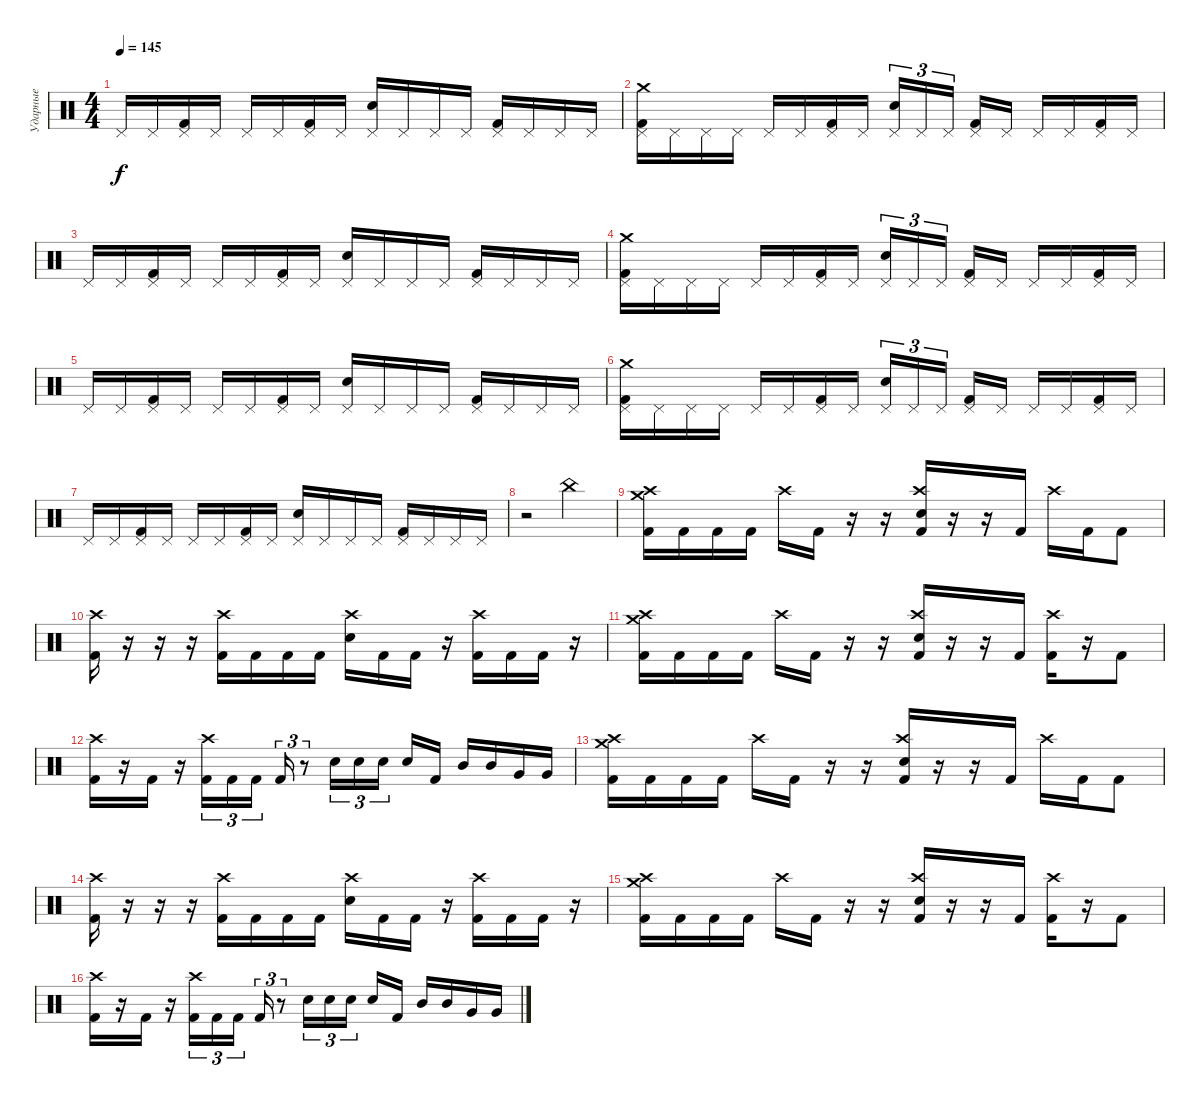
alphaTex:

\track ("Ударные" "Ударные") {instrument percussion}
\staff {score}
\articulation defaults
\ts (4 4)
\tempo 145
\clef neutral
\ks c "Pedal Hi-Hat (hit)".16{dy f} "Pedal Hi-Hat (hit)".16
("Pedal Hi-Hat (hit)" "Kick (hit) 2").16 "Pedal Hi-Hat (hit)".16 "Pedal Hi-Hat (hit)".16 "Pedal Hi-Hat (hit)".16 ("Pedal Hi-Hat (hit)" "Kick (hit) 2").16 "Pedal Hi-Hat (hit)".16 ("Hand Clap (hit)" "Pedal Hi-Hat (hit)").16 "Pedal Hi-Hat (hit)".16 "Pedal Hi-Hat (hit)".16 "Pedal Hi-Hat (hit)".16 ("Pedal Hi-Hat (hit)" "Kick (hit) 2").16 "Pedal Hi-Hat (hit)".16 "Pedal Hi-Hat (hit)".16 "Pedal Hi-Hat (hit)".16 |
("Crash medium (hit)" "Pedal Hi-Hat (hit)" "Kick (hit) 2").16 "Pedal Hi-Hat (hit)".16 "Pedal Hi-Hat (hit)".16 "Pedal Hi-Hat (hit)".16 "Pedal Hi-Hat (hit)".16 "Pedal Hi-Hat (hit)".16 ("Pedal Hi-Hat (hit)" "Kick (hit) 2").16 "Pedal Hi-Hat (hit)".16 ("Hand Clap (hit)" "Pedal Hi-Hat (hit)").16{tu (3 2)} "Pedal Hi-Hat (hit)".16{tu (3 2)} "Pedal Hi-Hat (hit)".16{tu (3 2) beam splitsecondary} ("Pedal Hi-Hat (hit)" "Kick (hit) 2").16 "Pedal Hi-Hat (hit)".16 "Pedal Hi-Hat (hit)".16 "Pedal Hi-Hat (hit)".16 ("Pedal Hi-Hat (hit)" "Kick (hit) 2").16 "Pedal Hi-Hat (hit)".16 |
"Pedal Hi-Hat (hit)".16 "Pedal Hi-Hat (hit)".16 ("Pedal Hi-Hat (hit)" "Kick (hit) 2").16 "Pedal Hi-Hat (hit)".16 "Pedal Hi-Hat (hit)".16 "Pedal Hi-Hat (hit)".16 ("Pedal Hi-Hat (hit)" "Kick (hit) 2").16 "Pedal Hi-Hat (hit)".16 ("Hand Clap (hit)" "Pedal Hi-Hat (hit)").16 "Pedal Hi-Hat (hit)".16 "Pedal Hi-Hat (hit)".16 "Pedal Hi-Hat (hit)".16 ("Pedal Hi-Hat (hit)" "Kick (hit) 2").16 "Pedal Hi-Hat (hit)".16 "Pedal Hi-Hat (hit)".16 "Pedal Hi-Hat (hit)".16 |
("Crash medium (hit)" "Pedal Hi-Hat (hit)" "Kick (hit) 2").16 "Pedal Hi-Hat (hit)".16 "Pedal Hi-Hat (hit)".16 "Pedal Hi-Hat (hit)".16 "Pedal Hi-Hat (hit)".16 "Pedal Hi-Hat (hit)".16 ("Pedal Hi-Hat (hit)" "Kick (hit) 2").16 "Pedal Hi-Hat (hit)".16 ("Hand Clap (hit)" "Pedal Hi-Hat (hit)").16{tu (3 2)} "Pedal Hi-Hat (hit)".16{tu (3 2)} "Pedal Hi-Hat (hit)".16{tu (3 2) beam splitsecondary} ("Pedal Hi-Hat (hit)" "Kick (hit) 2").16 "Pedal Hi-Hat (hit)".16 "Pedal Hi-Hat (hit)".16 "Pedal Hi-Hat (hit)".16 ("Pedal Hi-Hat (hit)" "Kick (hit) 2").16 "Pedal Hi-Hat (hit)".16 |
"Pedal Hi-Hat (hit)".16 "Pedal Hi-Hat (hit)".16 ("Pedal Hi-Hat (hit)" "Kick (hit) 2").16 "Pedal Hi-Hat (hit)".16 "Pedal Hi-Hat (hit)".16 "Pedal Hi-Hat (hit)".16 ("Pedal Hi-Hat (hit)" "Kick (hit) 2").16 "Pedal Hi-Hat (hit)".16 ("Hand Clap (hit)" "Pedal Hi-Hat (hit)").16 "Pedal Hi-Hat (hit)".16 "Pedal Hi-Hat (hit)".16 "Pedal Hi-Hat (hit)".16 ("Pedal Hi-Hat (hit)" "Kick (hit) 2").16 "Pedal Hi-Hat (hit)".16 "Pedal Hi-Hat (hit)".16 "Pedal Hi-Hat (hit)".16 |
("Crash medium (hit)" "Pedal Hi-Hat (hit)" "Kick (hit) 2").16 "Pedal Hi-Hat (hit)".16 "Pedal Hi-Hat (hit)".16 "Pedal Hi-Hat (hit)".16 "Pedal Hi-Hat (hit)".16 "Pedal Hi-Hat (hit)".16 ("Pedal Hi-Hat (hit)" "Kick (hit) 2").16 "Pedal Hi-Hat (hit)".16 ("Hand Clap (hit)" "Pedal Hi-Hat (hit)").16{tu (3 2)} "Pedal Hi-Hat (hit)".16{tu (3 2)} "Pedal Hi-Hat (hit)".16{tu (3 2) beam splitsecondary} ("Pedal Hi-Hat (hit)" "Kick (hit) 2").16 "Pedal Hi-Hat (hit)".16 "Pedal Hi-Hat (hit)".16 "Pedal Hi-Hat (hit)".16 ("Pedal Hi-Hat (hit)" "Kick (hit) 2").16 "Pedal Hi-Hat (hit)".16 |
"Pedal Hi-Hat (hit)".16 "Pedal Hi-Hat (hit)".16 ("Pedal Hi-Hat (hit)" "Kick (hit) 2").16 "Pedal Hi-Hat (hit)".16 "Pedal Hi-Hat (hit)".16 "Pedal Hi-Hat (hit)".16 ("Pedal Hi-Hat (hit)" "Kick (hit) 2").16 "Pedal Hi-Hat (hit)".16 ("Hand Clap (hit)" "Pedal Hi-Hat (hit)").16 "Pedal Hi-Hat (hit)".16 "Pedal Hi-Hat (hit)".16 "Pedal Hi-Hat (hit)".16 ("Pedal Hi-Hat (hit)" "Kick (hit) 2").16 "Pedal Hi-Hat (hit)".16 "Pedal Hi-Hat (hit)".16 "Pedal Hi-Hat (hit)".16 |
r.2 "China (hit)".2 |
("Crash high (hit)" "Crash medium (hit)" "Kick (hit) 2").16 "Kick (hit) 2".16 "Kick (hit) 2".16 "Kick (hit) 2".16 "Crash high (hit)".16 "Kick (hit) 2".16 r.16 r.16 ("Crash high (hit)" "Snare (hit) 2" "Kick (hit) 2").16 r.16 r.16 "Kick (hit) 2".16 "Crash high (hit)".16 "Kick (hit) 2".16 "Kick (hit) 2".8 |
("Crash high (hit)" "Kick (hit) 2").16 r.16 r.16 r.16 ("Crash high (hit)" "Kick (hit) 2").16 "Kick (hit) 2".16 "Kick (hit) 2".16 "Kick (hit) 2".16 ("Crash high (hit)" "Snare (hit) 2").16 "Kick (hit) 2".16 "Kick (hit) 2".16 r.16 ("Crash high (hit)" "Kick (hit) 2").16 "Kick (hit) 2".16 "Kick (hit) 2".16 r.16 |
("Crash high (hit)" "Crash medium (hit)" "Kick (hit) 2").16 "Kick (hit) 2".16 "Kick (hit) 2".16 "Kick (hit) 2".16 "Crash high (hit)".16 "Kick (hit) 2".16 r.16 r.16 ("Crash high (hit)" "Snare (hit) 2" "Kick (hit) 2").16 r.16 r.16 "Kick (hit) 2".16 ("Crash high (hit)" "Kick (hit) 2").16 r.16 "Kick (hit) 2".8 |
("Crash high (hit)" "Kick (hit) 2").16 r.16 "Kick (hit) 2".16 r.16 ("Crash high (hit)" "Kick (hit) 2").16{tu (3 2)} "Kick (hit) 2".16{tu (3 2)} "Kick (hit) 2".16{tu (3 2) beam splitsecondary} "Kick (hit) 2".16{tu (3 2)} r.8{tu (3 2)} "Snare (hit) 2".16{tu (3 2)} "Snare (hit) 2".16{tu (3 2)} "Snare (hit) 2".16{tu (3 2) beam splitsecondary} "Snare (hit) 2".16 "Kick (hit) 2".16 "Mid Tom (hit)".16 "Mid Tom (hit)".16 "Very Low Tom (hit)".16 "Very Low Tom (hit)".16 |
("Crash high (hit)" "Crash medium (hit)" "Kick (hit) 2").16 "Kick (hit) 2".16 "Kick (hit) 2".16 "Kick (hit) 2".16 "Crash high (hit)".16 "Kick (hit) 2".16 r.16 r.16 ("Crash high (hit)" "Snare (hit) 2" "Kick (hit) 2").16 r.16 r.16 "Kick (hit) 2".16 "Crash high (hit)".16 "Kick (hit) 2".16 "Kick (hit) 2".8 |
("Crash high (hit)" "Kick (hit) 2").16 r.16 r.16 r.16 ("Crash high (hit)" "Kick (hit) 2").16 "Kick (hit) 2".16 "Kick (hit) 2".16 "Kick (hit) 2".16 ("Crash high (hit)" "Snare (hit) 2").16 "Kick (hit) 2".16 "Kick (hit) 2".16 r.16 ("Crash high (hit)" "Kick (hit) 2").16 "Kick (hit) 2".16 "Kick (hit) 2".16 r.16 |
("Crash high (hit)" "Crash medium (hit)" "Kick (hit) 2").16 "Kick (hit) 2".16 "Kick (hit) 2".16 "Kick (hit) 2".16 "Crash high (hit)".16 "Kick (hit) 2".16 r.16 r.16 ("Crash high (hit)" "Snare (hit) 2" "Kick (hit) 2").16 r.16 r.16 "Kick (hit) 2".16 ("Crash high (hit)" "Kick (hit) 2").16 r.16 "Kick (hit) 2".8 |
("Crash high (hit)" "Kick (hit) 2").16 r.16 "Kick (hit) 2".16 r.16 ("Crash high (hit)" "Kick (hit) 2").16{tu (3 2)} "Kick (hit) 2".16{tu (3 2)} "Kick (hit) 2".16{tu (3 2) beam splitsecondary} "Kick (hit) 2".16{tu (3 2)} r.8{tu (3 2)} "Snare (hit) 2".16{tu (3 2)} "Snare (hit) 2".16{tu (3 2)} "Snare (hit) 2".16{tu (3 2) beam splitsecondary} "Snare (hit) 2".16 "Kick (hit) 2".16 "Mid Tom (hit)".16 "Mid Tom (hit)".16 "Very Low Tom (hit)".16 "Very Low Tom (hit)".16
